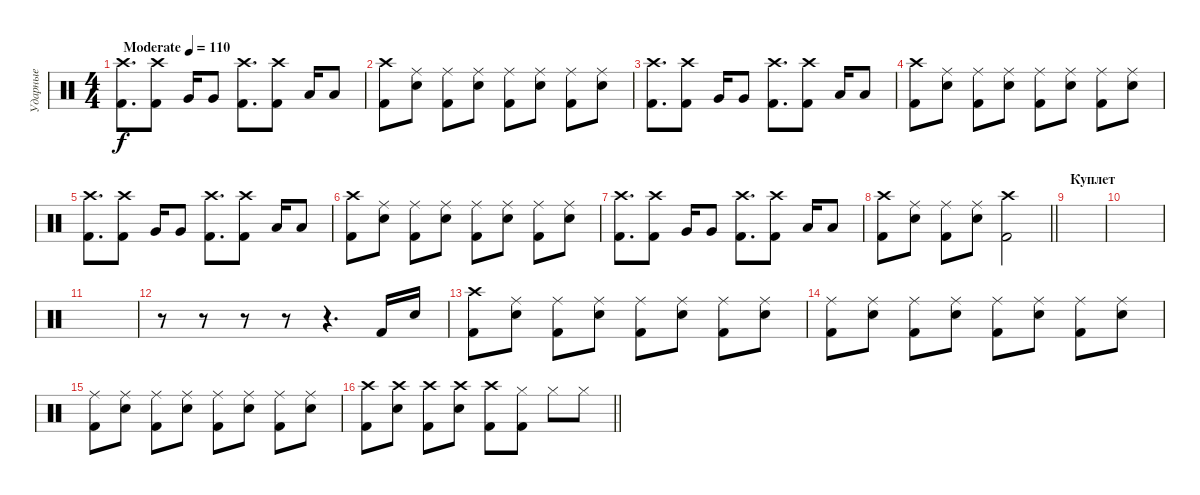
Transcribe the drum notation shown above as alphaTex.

\track ("Ударные" "Ударные") {instrument percussion}
\staff {score}
\articulation defaults
\ts (4 4)
\tempo (110 "Moderate")
\clef neutral
\ks c
("Crash high (hit)" "Kick (hit) 2").8{d dy f} ("Crash high (hit)" "Kick (hit) 2").8 "Very Low Tom (hit)".16 "Very Low Tom (hit)".8 ("Crash high (hit)" "Kick (hit) 2").8{d} ("Crash high (hit)" "Kick (hit) 2").8 "Low Floor Tom (hit)".16 "Low Floor Tom (hit)".8 |
("Crash high (hit)" "Kick (hit) 2").8 ("Ride (middle)" "Electric Snare (hit)").8 ("Ride (middle)" "Kick (hit) 2").8 ("Ride (middle)" "Electric Snare (hit)").8 ("Ride (middle)" "Kick (hit) 2").8 ("Ride (middle)" "Electric Snare (hit)").8 ("Ride (middle)" "Kick (hit) 2").8 ("Ride (middle)" "Electric Snare (hit)").8 |
("Crash high (hit)" "Kick (hit) 2").8{d} ("Crash high (hit)" "Kick (hit) 2").8 "Very Low Tom (hit)".16 "Very Low Tom (hit)".8 ("Crash high (hit)" "Kick (hit) 2").8{d} ("Crash high (hit)" "Kick (hit) 2").8 "Low Floor Tom (hit)".16 "Low Floor Tom (hit)".8 |
("Crash high (hit)" "Kick (hit) 2").8 ("Ride (middle)" "Electric Snare (hit)").8 ("Ride (middle)" "Kick (hit) 2").8 ("Ride (middle)" "Electric Snare (hit)").8 ("Ride (middle)" "Kick (hit) 2").8 ("Ride (middle)" "Electric Snare (hit)").8 ("Ride (middle)" "Kick (hit) 2").8 ("Ride (middle)" "Electric Snare (hit)").8 |
("Crash high (hit)" "Kick (hit) 2").8{d} ("Crash high (hit)" "Kick (hit) 2").8 "Very Low Tom (hit)".16 "Very Low Tom (hit)".8 ("Crash high (hit)" "Kick (hit) 2").8{d} ("Crash high (hit)" "Kick (hit) 2").8 "Low Floor Tom (hit)".16 "Low Floor Tom (hit)".8 |
("Crash high (hit)" "Kick (hit) 2").8 ("Ride (middle)" "Electric Snare (hit)").8 ("Ride (middle)" "Kick (hit) 2").8 ("Ride (middle)" "Electric Snare (hit)").8 ("Ride (middle)" "Kick (hit) 2").8 ("Ride (middle)" "Electric Snare (hit)").8 ("Ride (middle)" "Kick (hit) 2").8 ("Ride (middle)" "Electric Snare (hit)").8 |
("Crash high (hit)" "Kick (hit) 2").8{d} ("Crash high (hit)" "Kick (hit) 2").8 "Very Low Tom (hit)".16 "Very Low Tom (hit)".8 ("Crash high (hit)" "Kick (hit) 2").8{d} ("Crash high (hit)" "Kick (hit) 2").8 "Low Floor Tom (hit)".16 "Low Floor Tom (hit)".8 |
\barLineRight lightlight
("Crash high (hit)" "Kick (hit) 2").8 ("Ride (middle)" "Electric Snare (hit)").8 ("Ride (middle)" "Kick (hit) 2").8 ("Ride (middle)" "Electric Snare (hit)").8 ("Crash high (hit)" "Kick (hit) 2").2 |
\section ("" "Куплет")
|
|
|
r.8 r.8 r.8 r.8 r.4{d} "Kick (hit) 2".16 "Electric Snare (hit)".16 |
("Crash high (hit)" "Kick (hit) 2").8 ("Ride (middle)" "Electric Snare (hit)").8 ("Ride (middle)" "Kick (hit) 2").8 ("Ride (middle)" "Electric Snare (hit)").8 ("Ride (middle)" "Kick (hit) 2").8 ("Ride (middle)" "Electric Snare (hit)").8 ("Ride (middle)" "Kick (hit) 2").8 ("Ride (middle)" "Electric Snare (hit)").8 |
("Ride (middle)" "Kick (hit) 2").8 ("Ride (middle)" "Electric Snare (hit)").8 ("Ride (middle)" "Kick (hit) 2").8 ("Ride (middle)" "Electric Snare (hit)").8 ("Ride (middle)" "Kick (hit) 2").8 ("Ride (middle)" "Electric Snare (hit)").8 ("Ride (middle)" "Kick (hit) 2").8 ("Ride (middle)" "Electric Snare (hit)").8 |
("Ride (middle)" "Kick (hit) 2").8 ("Ride (middle)" "Electric Snare (hit)").8 ("Ride (middle)" "Kick (hit) 2").8 ("Ride (middle)" "Electric Snare (hit)").8 ("Ride (middle)" "Kick (hit) 2").8 ("Ride (middle)" "Electric Snare (hit)").8 ("Ride (middle)" "Kick (hit) 2").8 ("Ride (middle)" "Electric Snare (hit)").8 |
\barLineRight lightlight
("Crash high (hit)" "Kick (hit) 2").8 ("Crash high (hit)" "Electric Snare (hit)").8 ("Crash high (hit)" "Kick (hit) 2").8 ("Crash high (hit)" "Electric Snare (hit)").8 ("Crash high (hit)" "Kick (hit) 2").8 ("Hi-Hat (closed)" "Kick (hit) 2").8 "Hi-Hat (closed)".8 "Hi-Hat (closed)".8
